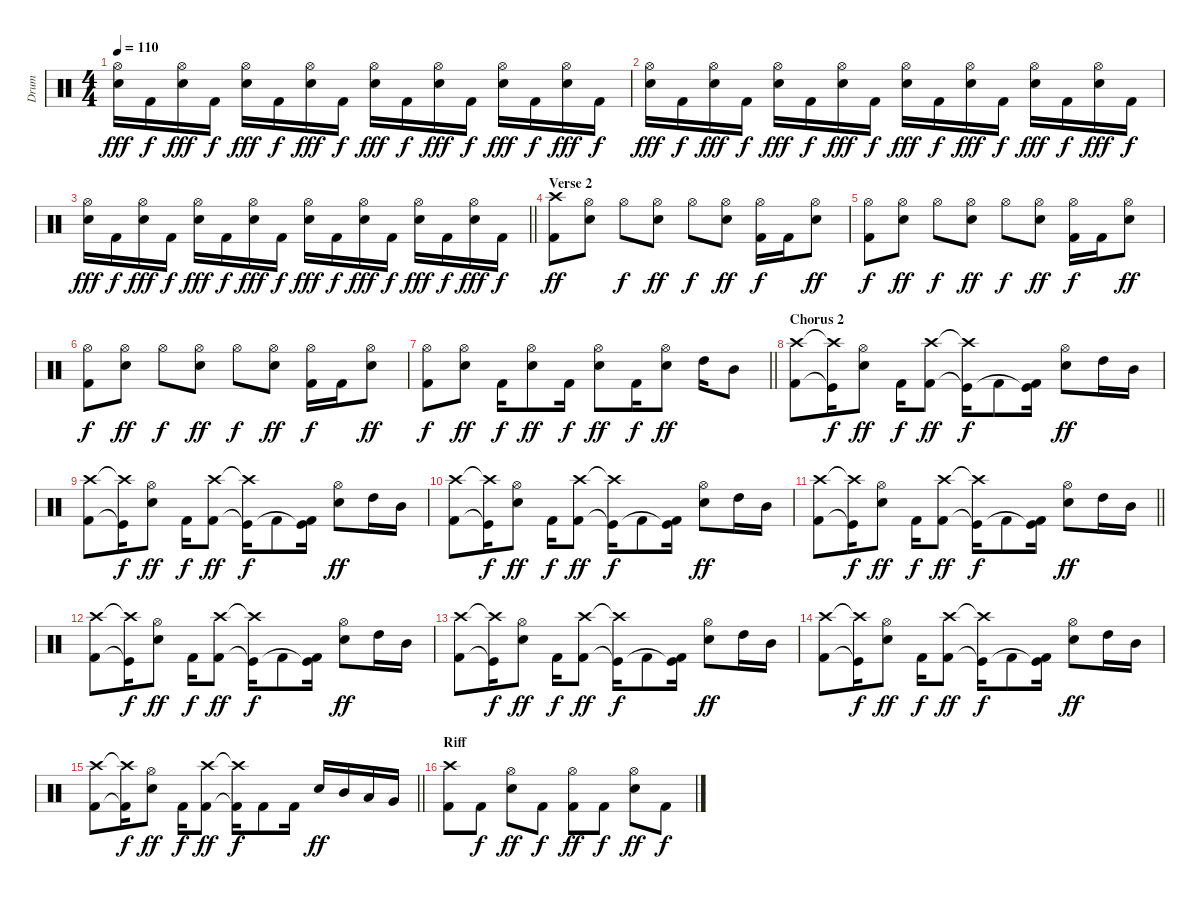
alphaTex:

\track ("Drum" "Drum") {instrument percussion}
\staff {score}
\articulation defaults
\ts (4 4)
\tempo 110
\clef neutral
\ks c
("Snare (hit) 2" "Hi-Hat (open)").16{dy fff} "Kick (hit) 2".16{dy f} ("Snare (hit) 2" "Hi-Hat (open)").16{dy fff} "Kick (hit) 2".16{dy f} ("Snare (hit) 2" "Hi-Hat (open)").16{dy fff} "Kick (hit) 2".16{dy f} ("Snare (hit) 2" "Hi-Hat (open)").16{dy fff} "Kick (hit) 2".16{dy f} ("Snare (hit) 2" "Hi-Hat (open)").16{dy fff} "Kick (hit) 2".16{dy f} ("Snare (hit) 2" "Hi-Hat (open)").16{dy fff} "Kick (hit) 2".16{dy f} ("Snare (hit) 2" "Hi-Hat (open)").16{dy fff} "Kick (hit) 2".16{dy f} ("Snare (hit) 2" "Hi-Hat (open)").16{dy fff} "Kick (hit) 2".16{dy f} |
("Snare (hit) 2" "Hi-Hat (open)").16{dy fff} "Kick (hit) 2".16{dy f} ("Snare (hit) 2" "Hi-Hat (open)").16{dy fff} "Kick (hit) 2".16{dy f} ("Snare (hit) 2" "Hi-Hat (open)").16{dy fff} "Kick (hit) 2".16{dy f} ("Snare (hit) 2" "Hi-Hat (open)").16{dy fff} "Kick (hit) 2".16{dy f} ("Snare (hit) 2" "Hi-Hat (open)").16{dy fff} "Kick (hit) 2".16{dy f} ("Snare (hit) 2" "Hi-Hat (open)").16{dy fff} "Kick (hit) 2".16{dy f} ("Snare (hit) 2" "Hi-Hat (open)").16{dy fff} "Kick (hit) 2".16{dy f} ("Snare (hit) 2" "Hi-Hat (open)").16{dy fff} "Kick (hit) 2".16{dy f} |
\barLineRight lightlight
("Snare (hit) 2" "Hi-Hat (open)").16{dy fff} "Kick (hit) 2".16{dy f} ("Snare (hit) 2" "Hi-Hat (open)").16{dy fff} "Kick (hit) 2".16{dy f} ("Snare (hit) 2" "Hi-Hat (open)").16{dy fff} "Kick (hit) 2".16{dy f} ("Snare (hit) 2" "Hi-Hat (open)").16{dy fff} "Kick (hit) 2".16{dy f} ("Snare (hit) 2" "Hi-Hat (open)").16{dy fff} "Kick (hit) 2".16{dy f} ("Snare (hit) 2" "Hi-Hat (open)").16{dy fff} "Kick (hit) 2".16{dy f} ("Snare (hit) 2" "Hi-Hat (open)").16{dy fff} "Kick (hit) 2".16{dy f} ("Snare (hit) 2" "Hi-Hat (open)").16{dy fff} "Kick (hit) 2".16{dy f} |
\section ("" "Verse 2")
("Kick (hit) 2" "Crash high (hit)").8{dy ff} ("Snare (hit) 2" "Hi-Hat (open)").8 "Hi-Hat (open)".8{dy f} ("Snare (hit) 2" "Hi-Hat (open)").8{dy ff} "Hi-Hat (open)".8{dy f} ("Snare (hit) 2" "Hi-Hat (open)").8{dy ff} ("Hi-Hat (open)" "Kick (hit) 2").16{dy f} "Kick (hit) 2".16 ("Snare (hit) 2" "Hi-Hat (open)").8{dy ff} |
("Kick (hit) 2" "Hi-Hat (open)").8{dy f} ("Snare (hit) 2" "Hi-Hat (open)").8{dy ff} "Hi-Hat (open)".8{dy f} ("Snare (hit) 2" "Hi-Hat (open)").8{dy ff} "Hi-Hat (open)".8{dy f} ("Snare (hit) 2" "Hi-Hat (open)").8{dy ff} ("Hi-Hat (open)" "Kick (hit) 2").16{dy f} "Kick (hit) 2".16 ("Snare (hit) 2" "Hi-Hat (open)").8{dy ff} |
("Kick (hit) 2" "Hi-Hat (open)").8{dy f} ("Snare (hit) 2" "Hi-Hat (open)").8{dy ff} "Hi-Hat (open)".8{dy f} ("Snare (hit) 2" "Hi-Hat (open)").8{dy ff} "Hi-Hat (open)".8{dy f} ("Snare (hit) 2" "Hi-Hat (open)").8{dy ff} ("Hi-Hat (open)" "Kick (hit) 2").16{dy f} "Kick (hit) 2".16 ("Snare (hit) 2" "Hi-Hat (open)").8{dy ff} |
\barLineRight lightlight
("Kick (hit) 2" "Hi-Hat (open)").8{dy f} ("Hi-Hat (open)" "Snare (hit) 2").8{dy ff} "Kick (hit) 2".16{dy f} ("Hi-Hat (open)" "Snare (hit) 2").8{dy ff} "Kick (hit) 2".16{dy f} ("Hi-Hat (open)" "Snare (hit) 2").8{dy ff} "Kick (hit) 2".16{dy f} ("Hi-Hat (open)" "Snare (hit) 2").8{dy ff} "High Tom (hit)".16 "Mid Tom (hit)".8 |
\section ("" "Chorus 2")
("Crash high (hit)" "Kick (hit) 2").8 ("Crash high (hit)"{t} "Kick (hit)"{t}).16{dy f} ("Snare (hit) 2" "Hi-Hat (open)").8{dy ff} "Kick (hit) 2".16{dy f} ("Crash high (hit)" "Kick (hit) 2").8{dy ff} ("Crash high (hit)"{t} "Kick (hit)"{t}).16{dy f} "Kick (hit) 2".8 ("Kick (hit) 2" "Kick (hit)"{t}).16 ("Snare (hit) 2" "Hi-Hat (open)").8{dy ff} "High Tom (hit)".16 "Mid Tom (hit)".16 |
("Crash high (hit)" "Kick (hit) 2").8 ("Crash high (hit)"{t} "Kick (hit)"{t}).16{dy f} ("Snare (hit) 2" "Hi-Hat (open)").8{dy ff} "Kick (hit) 2".16{dy f} ("Crash high (hit)" "Kick (hit) 2").8{dy ff} ("Crash high (hit)"{t} "Kick (hit)"{t}).16{dy f} "Kick (hit) 2".8 ("Kick (hit) 2" "Kick (hit)"{t}).16 ("Snare (hit) 2" "Hi-Hat (open)").8{dy ff} "High Tom (hit)".16 "Mid Tom (hit)".16 |
("Crash high (hit)" "Kick (hit) 2").8 ("Crash high (hit)"{t} "Kick (hit)"{t}).16{dy f} ("Snare (hit) 2" "Hi-Hat (open)").8{dy ff} "Kick (hit) 2".16{dy f} ("Crash high (hit)" "Kick (hit) 2").8{dy ff} ("Crash high (hit)"{t} "Kick (hit)"{t}).16{dy f} "Kick (hit) 2".8 ("Kick (hit) 2" "Kick (hit)"{t}).16 ("Snare (hit) 2" "Hi-Hat (open)").8{dy ff} "High Tom (hit)".16 "Mid Tom (hit)".16 |
\barLineRight lightlight
("Crash high (hit)" "Kick (hit) 2").8 ("Crash high (hit)"{t} "Kick (hit)"{t}).16{dy f} ("Snare (hit) 2" "Hi-Hat (open)").8{dy ff} "Kick (hit) 2".16{dy f} ("Crash high (hit)" "Kick (hit) 2").8{dy ff} ("Crash high (hit)"{t} "Kick (hit)"{t}).16{dy f} "Kick (hit) 2".8 ("Kick (hit) 2" "Kick (hit)"{t}).16 ("Snare (hit) 2" "Hi-Hat (open)").8{dy ff} "High Tom (hit)".16 "Mid Tom (hit)".16 |
("Crash high (hit)" "Kick (hit) 2").8 ("Crash high (hit)"{t} "Kick (hit)"{t}).16{dy f} ("Snare (hit) 2" "Hi-Hat (open)").8{dy ff} "Kick (hit) 2".16{dy f} ("Crash high (hit)" "Kick (hit) 2").8{dy ff} ("Crash high (hit)"{t} "Kick (hit)"{t}).16{dy f} "Kick (hit) 2".8 ("Kick (hit) 2" "Kick (hit)"{t}).16 ("Snare (hit) 2" "Hi-Hat (open)").8{dy ff} "High Tom (hit)".16 "Mid Tom (hit)".16 |
("Crash high (hit)" "Kick (hit) 2").8 ("Crash high (hit)"{t} "Kick (hit)"{t}).16{dy f} ("Snare (hit) 2" "Hi-Hat (open)").8{dy ff} "Kick (hit) 2".16{dy f} ("Crash high (hit)" "Kick (hit) 2").8{dy ff} ("Crash high (hit)"{t} "Kick (hit)"{t}).16{dy f} "Kick (hit) 2".8 ("Kick (hit) 2" "Kick (hit)"{t}).16 ("Snare (hit) 2" "Hi-Hat (open)").8{dy ff} "High Tom (hit)".16 "Mid Tom (hit)".16 |
("Crash high (hit)" "Kick (hit) 2").8 ("Crash high (hit)"{t} "Kick (hit)"{t}).16{dy f} ("Snare (hit) 2" "Hi-Hat (open)").8{dy ff} "Kick (hit) 2".16{dy f} ("Crash high (hit)" "Kick (hit) 2").8{dy ff} ("Crash high (hit)"{t} "Kick (hit)"{t}).16{dy f} "Kick (hit) 2".8 ("Kick (hit) 2" "Kick (hit)"{t}).16 ("Snare (hit) 2" "Hi-Hat (open)").8{dy ff} "High Tom (hit)".16 "Mid Tom (hit)".16 |
\barLineRight lightlight
("Kick (hit) 2" "Crash high (hit)").8 ("Kick (hit) 2"{t} "Crash high (hit)"{t}).16{dy f} ("Snare (hit) 2" "Hi-Hat (open)").8{dy ff} "Kick (hit) 2".16{dy f} ("Kick (hit) 2" "Crash high (hit)").8{dy ff} ("Kick (hit) 2"{t} "Crash high (hit)"{t}).16{dy f} "Kick (hit) 2".8 "Kick (hit) 2".16 "Snare (hit) 2".16{dy ff} "Mid Tom (hit)".16 "Low Tom (hit)".16 "Very Low Tom (hit)".16 |
\section ("" "Riff")
("Kick (hit) 2" "Crash high (hit)").8 "Kick (hit) 2".8{dy f} ("Snare (hit) 2" "Hi-Hat (open)").8{dy ff} "Kick (hit) 2".8{dy f} ("Kick (hit) 2" "Hi-Hat (open)").8{dy ff} "Kick (hit) 2".8{dy f} ("Snare (hit) 2" "Hi-Hat (open)").8{dy ff} "Kick (hit) 2".8{dy f}
